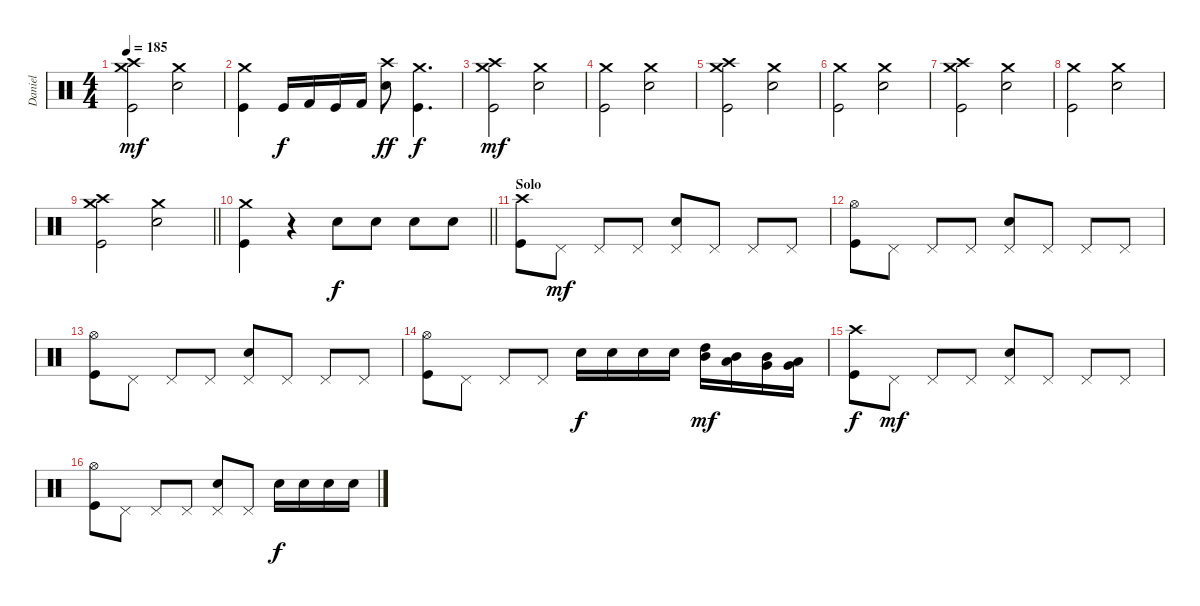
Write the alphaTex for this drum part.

\track ("Daniel" "Daniel") {instrument percussion}
\staff {score}
\articulation defaults
\ts (4 4)
\tempo 185
\clef neutral
\ks c
("Kick (hit)" "Crash medium (hit)" "Crash high (hit)").2{dy mf} ("Electric Snare (hit)" "Crash medium (hit)").2 |
("Kick (hit)" "Crash medium (hit)").4 "Kick (hit)".16{dy f} "Kick (hit) 2".16 "Kick (hit)".16 "Kick (hit) 2".16 ("Electric Snare (hit)" "Crash high (hit)").8{dy ff} ("Kick (hit)" "Crash medium (hit)").4{d dy f} |
("Kick (hit)" "Crash medium (hit)" "Crash high (hit)").2{dy mf} ("Electric Snare (hit)" "Crash medium (hit)").2 |
("Kick (hit)" "Crash medium (hit)").2 ("Electric Snare (hit)" "Crash medium (hit)").2 |
("Kick (hit)" "Crash medium (hit)" "Crash high (hit)").2 ("Electric Snare (hit)" "Crash medium (hit)").2 |
("Kick (hit)" "Crash medium (hit)").2 ("Electric Snare (hit)" "Crash medium (hit)").2 |
("Kick (hit)" "Crash medium (hit)" "Crash high (hit)").2 ("Electric Snare (hit)" "Crash medium (hit)").2 |
("Kick (hit)" "Crash medium (hit)").2 ("Electric Snare (hit)" "Crash medium (hit)").2 |
\barLineRight lightlight
("Kick (hit)" "Crash medium (hit)" "Crash high (hit)").2 ("Electric Snare (hit)" "Crash medium (hit)").2 |
\barLineRight lightlight
("Kick (hit)" "Crash medium (hit)").4 r.4 "Electric Snare (hit)".8{dy f} "Electric Snare (hit)".8 "Electric Snare (hit)".8 "Electric Snare (hit)".8 |
\section ("" "Solo")
("Kick (hit)" "Crash high (hit)").8 "Pedal Hi-Hat (hit)".8{dy mf} "Pedal Hi-Hat (hit)".8 "Pedal Hi-Hat (hit)".8 ("Electric Snare (hit)" "Pedal Hi-Hat (hit)").8 "Pedal Hi-Hat (hit)".8 "Pedal Hi-Hat (hit)".8 "Pedal Hi-Hat (hit)".8 |
("Kick (hit)" "Hi-Hat (open)").8 "Pedal Hi-Hat (hit)".8 "Pedal Hi-Hat (hit)".8 "Pedal Hi-Hat (hit)".8 ("Electric Snare (hit)" "Pedal Hi-Hat (hit)").8 "Pedal Hi-Hat (hit)".8 "Pedal Hi-Hat (hit)".8 "Pedal Hi-Hat (hit)".8 |
("Kick (hit)" "Hi-Hat (open)").8 "Pedal Hi-Hat (hit)".8 "Pedal Hi-Hat (hit)".8 "Pedal Hi-Hat (hit)".8 ("Electric Snare (hit)" "Pedal Hi-Hat (hit)").8 "Pedal Hi-Hat (hit)".8 "Pedal Hi-Hat (hit)".8 "Pedal Hi-Hat (hit)".8 |
("Kick (hit)" "Hi-Hat (open)").8 "Pedal Hi-Hat (hit)".8 "Pedal Hi-Hat (hit)".8 "Pedal Hi-Hat (hit)".8 "Electric Snare (hit)".16{dy f} "Electric Snare (hit)".16 "Electric Snare (hit)".16 "Electric Snare (hit)".16 ("Mid Tom (hit)" "High Tom (hit)").16{dy mf} ("Low Tom (hit)" "Mid Tom (hit)").16 ("Very Low Tom (hit)" "Mid Tom (hit)").16 ("Very Low Tom (hit)" "Low Tom (hit)").16 |
("Kick (hit)" "Crash high (hit)").8{dy f} "Pedal Hi-Hat (hit)".8{dy mf} "Pedal Hi-Hat (hit)".8 "Pedal Hi-Hat (hit)".8 ("Electric Snare (hit)" "Pedal Hi-Hat (hit)").8 "Pedal Hi-Hat (hit)".8 "Pedal Hi-Hat (hit)".8 "Pedal Hi-Hat (hit)".8 |
("Kick (hit)" "Hi-Hat (open)").8 "Pedal Hi-Hat (hit)".8 "Pedal Hi-Hat (hit)".8 "Pedal Hi-Hat (hit)".8 ("Electric Snare (hit)" "Pedal Hi-Hat (hit)").8 "Pedal Hi-Hat (hit)".8 "Electric Snare (hit)".16{dy f} "Electric Snare (hit)".16 "Electric Snare (hit)".16 "Electric Snare (hit)".16
